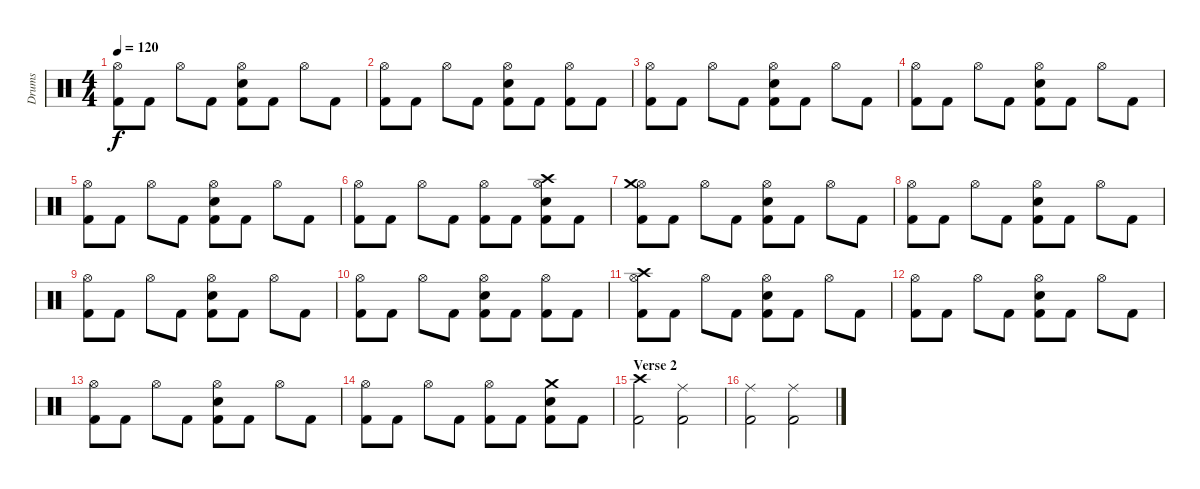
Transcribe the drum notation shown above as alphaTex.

\track ("Drums" "Drums") {instrument percussion}
\staff {score}
\articulation defaults
\ts (4 4)
\tempo 120
\clef neutral
\ks c
("Hi-Hat (open)" "Kick (hit) 2").8{dy f} "Kick (hit) 2".8 "Hi-Hat (open)".8 "Kick (hit) 2".8 ("Hi-Hat (open)" "Snare (hit) 2" "Kick (hit) 2").8 "Kick (hit) 2".8 "Hi-Hat (open)".8 "Kick (hit) 2".8 |
("Hi-Hat (open)" "Kick (hit) 2").8 "Kick (hit) 2".8 "Hi-Hat (open)".8 "Kick (hit) 2".8 ("Hi-Hat (open)" "Snare (hit) 2" "Kick (hit) 2").8 "Kick (hit) 2".8 ("Hi-Hat (open)" "Kick (hit) 2").8 "Kick (hit) 2".8 |
("Hi-Hat (open)" "Kick (hit) 2").8 "Kick (hit) 2".8 "Hi-Hat (open)".8 "Kick (hit) 2".8 ("Hi-Hat (open)" "Snare (hit) 2" "Kick (hit) 2").8 "Kick (hit) 2".8 "Hi-Hat (open)".8 "Kick (hit) 2".8 |
("Hi-Hat (open)" "Kick (hit) 2").8 "Kick (hit) 2".8 "Hi-Hat (open)".8 "Kick (hit) 2".8 ("Hi-Hat (open)" "Snare (hit) 2" "Kick (hit) 2").8 "Kick (hit) 2".8 "Hi-Hat (open)".8 "Kick (hit) 2".8 |
("Hi-Hat (open)" "Kick (hit) 2").8 "Kick (hit) 2".8 "Hi-Hat (open)".8 "Kick (hit) 2".8 ("Hi-Hat (open)" "Snare (hit) 2" "Kick (hit) 2").8 "Kick (hit) 2".8 "Hi-Hat (open)".8 "Kick (hit) 2".8 |
("Hi-Hat (open)" "Kick (hit) 2").8 "Kick (hit) 2".8 "Hi-Hat (open)".8 "Kick (hit) 2".8 ("Hi-Hat (open)" "Kick (hit) 2").8 "Kick (hit) 2".8 ("Hi-Hat (open)" "Crash high (hit)" "Snare (hit) 2" "Kick (hit) 2").8 "Kick (hit) 2".8 |
("Hi-Hat (open)" "Crash medium (hit)" "Kick (hit) 2").8 "Kick (hit) 2".8 "Hi-Hat (open)".8 "Kick (hit) 2".8 ("Hi-Hat (open)" "Snare (hit) 2" "Kick (hit) 2").8 "Kick (hit) 2".8 "Hi-Hat (open)".8 "Kick (hit) 2".8 |
("Hi-Hat (open)" "Kick (hit) 2").8 "Kick (hit) 2".8 "Hi-Hat (open)".8 "Kick (hit) 2".8 ("Hi-Hat (open)" "Snare (hit) 2" "Kick (hit) 2").8 "Kick (hit) 2".8 "Hi-Hat (open)".8 "Kick (hit) 2".8 |
("Hi-Hat (open)" "Kick (hit) 2").8 "Kick (hit) 2".8 "Hi-Hat (open)".8 "Kick (hit) 2".8 ("Hi-Hat (open)" "Snare (hit) 2" "Kick (hit) 2").8 "Kick (hit) 2".8 "Hi-Hat (open)".8 "Kick (hit) 2".8 |
("Hi-Hat (open)" "Kick (hit) 2").8 "Kick (hit) 2".8 "Hi-Hat (open)".8 "Kick (hit) 2".8 ("Hi-Hat (open)" "Snare (hit) 2" "Kick (hit) 2").8 "Kick (hit) 2".8 ("Hi-Hat (open)" "Kick (hit) 2").8 "Kick (hit) 2".8 |
("Hi-Hat (open)" "Crash high (hit)" "Kick (hit) 2").8 "Kick (hit) 2".8 "Hi-Hat (open)".8 "Kick (hit) 2".8 ("Hi-Hat (open)" "Snare (hit) 2" "Kick (hit) 2").8 "Kick (hit) 2".8 "Hi-Hat (open)".8 "Kick (hit) 2".8 |
("Hi-Hat (open)" "Kick (hit) 2").8 "Kick (hit) 2".8 "Hi-Hat (open)".8 "Kick (hit) 2".8 ("Hi-Hat (open)" "Snare (hit) 2" "Kick (hit) 2").8 "Kick (hit) 2".8 "Hi-Hat (open)".8 "Kick (hit) 2".8 |
("Hi-Hat (open)" "Kick (hit) 2").8 "Kick (hit) 2".8 "Hi-Hat (open)".8 "Kick (hit) 2".8 ("Hi-Hat (open)" "Snare (hit) 2" "Kick (hit) 2").8 "Kick (hit) 2".8 "Hi-Hat (open)".8 "Kick (hit) 2".8 |
("Hi-Hat (open)" "Kick (hit) 2").8 "Kick (hit) 2".8 "Hi-Hat (open)".8 "Kick (hit) 2".8 ("Hi-Hat (open)" "Kick (hit) 2").8 "Kick (hit) 2".8 ("Crash medium (hit)" "Snare (hit) 2" "Kick (hit) 2").8 "Kick (hit) 2".8 |
\section ("" "Verse 2")
("Crash high (hit)" "Kick (hit) 2").2 ("Ride (middle)" "Kick (hit) 2").2 |
("Ride (middle)" "Kick (hit) 2").2 ("Ride (middle)" "Kick (hit) 2").2
